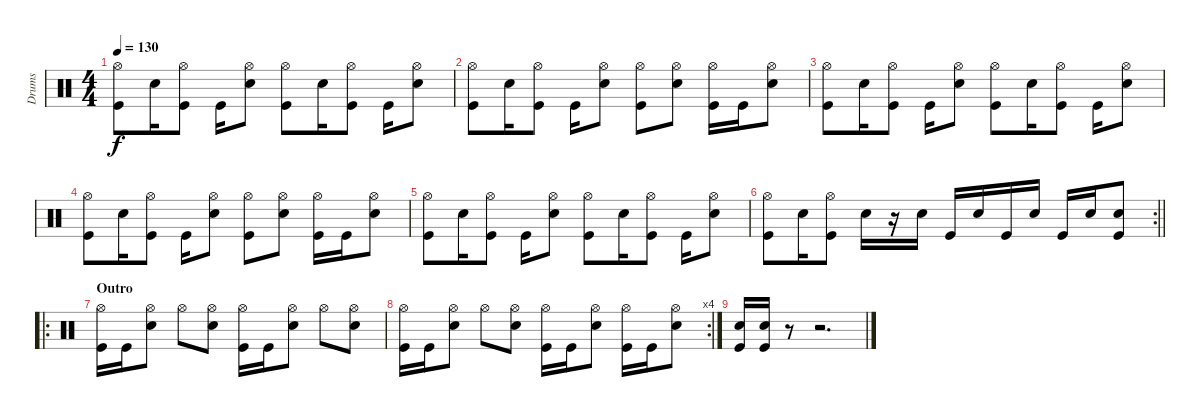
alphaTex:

\track ("Drums" "Drums") {instrument percussion}
\staff {score}
\articulation defaults
\ts (4 4)
\tempo 130
\clef neutral
\ks c
("Hi-Hat (open)" "Kick (hit)").8{dy f} "Snare (hit) 2".16 ("Hi-Hat (open)" "Kick (hit)").8 "Kick (hit)".16 ("Hi-Hat (open)" "Snare (hit) 2").8 ("Hi-Hat (open)" "Kick (hit)").8 "Snare (hit) 2".16 ("Hi-Hat (open)" "Kick (hit)").8 "Kick (hit)".16 ("Hi-Hat (open)" "Snare (hit) 2").8 |
("Hi-Hat (open)" "Kick (hit)").8 "Snare (hit) 2".16 ("Hi-Hat (open)" "Kick (hit)").8 "Kick (hit)".16 ("Hi-Hat (open)" "Snare (hit) 2").8 ("Hi-Hat (open)" "Kick (hit)").8 ("Hi-Hat (open)" "Snare (hit) 2").8 ("Hi-Hat (open)" "Kick (hit)").16 "Kick (hit)".16 ("Hi-Hat (open)" "Snare (hit) 2").8 |
("Hi-Hat (open)" "Kick (hit)").8 "Snare (hit) 2".16 ("Hi-Hat (open)" "Kick (hit)").8 "Kick (hit)".16 ("Hi-Hat (open)" "Snare (hit) 2").8 ("Hi-Hat (open)" "Kick (hit)").8 "Snare (hit) 2".16 ("Hi-Hat (open)" "Kick (hit)").8 "Kick (hit)".16 ("Hi-Hat (open)" "Snare (hit) 2").8 |
("Hi-Hat (open)" "Kick (hit)").8 "Snare (hit) 2".16 ("Hi-Hat (open)" "Kick (hit)").8 "Kick (hit)".16 ("Hi-Hat (open)" "Snare (hit) 2").8 ("Hi-Hat (open)" "Kick (hit)").8 ("Hi-Hat (open)" "Snare (hit) 2").8 ("Hi-Hat (open)" "Kick (hit)").16 "Kick (hit)".16 ("Hi-Hat (open)" "Snare (hit) 2").8 |
("Hi-Hat (open)" "Kick (hit)").8 "Snare (hit) 2".16 ("Hi-Hat (open)" "Kick (hit)").8 "Kick (hit)".16 ("Hi-Hat (open)" "Snare (hit) 2").8 ("Hi-Hat (open)" "Kick (hit)").8 "Snare (hit) 2".16 ("Hi-Hat (open)" "Kick (hit)").8 "Kick (hit)".16 ("Hi-Hat (open)" "Snare (hit) 2").8 |
\rc 2
\barLineRight lightlight
("Hi-Hat (open)" "Kick (hit)").8 "Snare (hit) 2".16 ("Hi-Hat (open)" "Kick (hit)").8 "Snare (hit) 2".16 r.16 "Snare (hit) 2".16 "Kick (hit)".16 "Snare (hit) 2".16 "Kick (hit)".16 "Snare (hit) 2".16 "Kick (hit)".16 "Snare (hit) 2".16 ("Snare (hit) 2" "Kick (hit)").8 |
\ro
\section ("" "Outro")
("Hi-Hat (open)" "Kick (hit)").16 "Kick (hit)".16 ("Hi-Hat (open)" "Snare (hit) 2").8 "Hi-Hat (open)".8 ("Hi-Hat (open)" "Snare (hit) 2").8 ("Hi-Hat (open)" "Kick (hit)").16 "Kick (hit)".16 ("Hi-Hat (open)" "Snare (hit) 2").8 "Hi-Hat (open)".8 ("Hi-Hat (open)" "Snare (hit) 2").8 |
\rc 4
("Hi-Hat (open)" "Kick (hit)").16 "Kick (hit)".16 ("Hi-Hat (open)" "Snare (hit) 2").8 "Hi-Hat (open)".8 ("Hi-Hat (open)" "Snare (hit) 2").8 ("Hi-Hat (open)" "Kick (hit)").16 "Kick (hit)".16 ("Hi-Hat (open)" "Snare (hit) 2").8 ("Hi-Hat (open)" "Kick (hit)").16 "Kick (hit)".16 ("Hi-Hat (open)" "Snare (hit) 2").8 |
("Snare (hit) 2" "Kick (hit)").16 ("Snare (hit) 2" "Kick (hit)").16 r.8 r.2{d}
